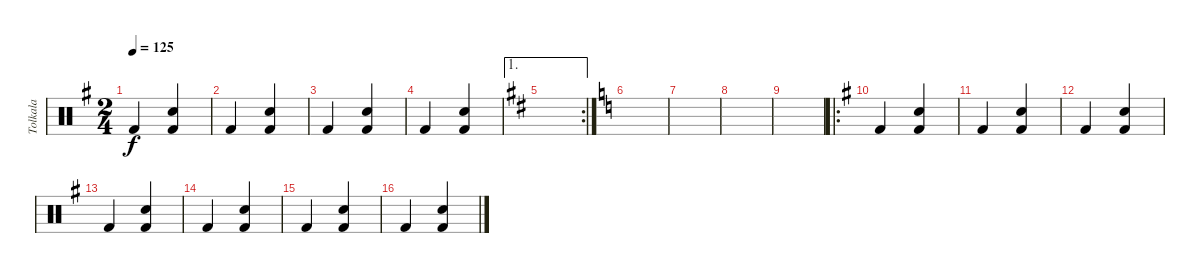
\track ("Tolkala" "Tolkala") {instrument percussion}
\staff {score}
\articulation defaults
\ts (2 4)
\tempo 125
\clef neutral
\ks g "Kick (hit) 2".4{dy f}
("Kick (hit) 2" "Snare (hit) 2").4 |
"Kick (hit) 2".4 ("Kick (hit) 2" "Snare (hit) 2").4 |
"Kick (hit) 2".4 ("Kick (hit) 2" "Snare (hit) 2").4 |
"Kick (hit) 2".4 ("Kick (hit) 2" "Snare (hit) 2").4 |
\ae 1
\rc 2
\ks d
|
\ks c
|
|
|
|
\ro
\ks g "Kick (hit) 2".4
("Kick (hit) 2" "Snare (hit) 2").4 |
"Kick (hit) 2".4 ("Kick (hit) 2" "Snare (hit) 2").4 |
"Kick (hit) 2".4 ("Kick (hit) 2" "Snare (hit) 2").4 |
"Kick (hit) 2".4 ("Kick (hit) 2" "Snare (hit) 2").4 |
"Kick (hit) 2".4 ("Kick (hit) 2" "Snare (hit) 2").4 |
"Kick (hit) 2".4 ("Kick (hit) 2" "Snare (hit) 2").4 |
"Kick (hit) 2".4 ("Kick (hit) 2" "Snare (hit) 2").4
